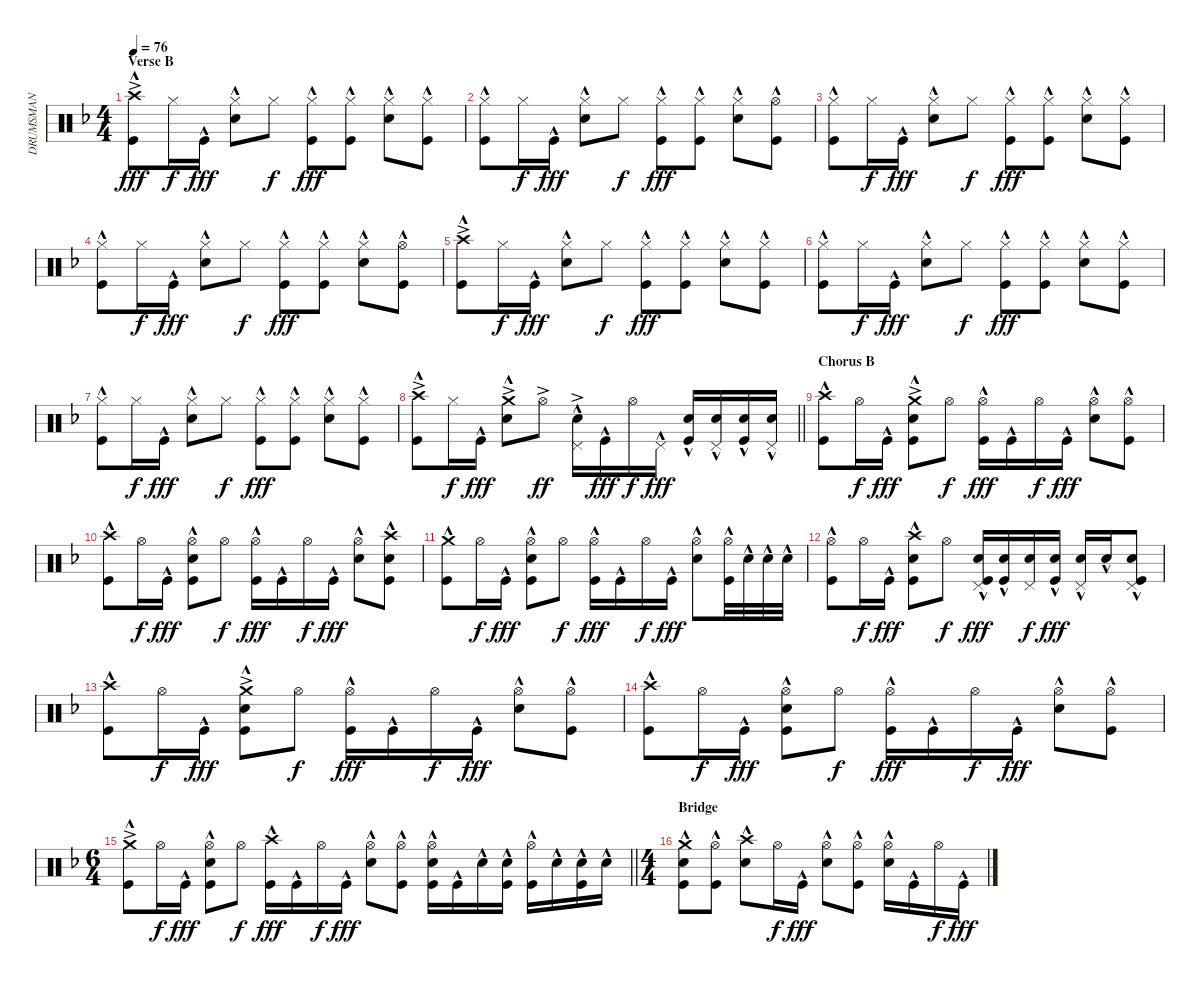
\track ("DRUMSMAN" "DRUMSMAN") {instrument percussion}
\staff {score}
\articulation defaults
\ts (4 4)
\section ("" "Verse B")
\tempo 76
\clef neutral
\ks f
("Crash high (hit)"{ac} "Kick (hit)"{hac}).8{dy fff} "Hi-Hat (closed)".16{dy f} "Kick (hit)"{hac}.16{dy fff} ("Hi-Hat (closed)" "Snare (hit) 2"{hac}).8 "Hi-Hat (closed)".8{dy f} ("Hi-Hat (closed)" "Kick (hit)"{hac}).8{dy fff} ("Hi-Hat (closed)" "Kick (hit)"{hac}).8 ("Hi-Hat (closed)" "Snare (hit) 2"{hac}).8 ("Hi-Hat (closed)" "Kick (hit)"{hac}).8 |
("Hi-Hat (closed)" "Kick (hit)"{hac}).8 "Hi-Hat (closed)".16{dy f} "Kick (hit)"{hac}.16{dy fff} ("Hi-Hat (closed)" "Snare (hit) 2"{hac}).8 "Hi-Hat (closed)".8{dy f} ("Hi-Hat (closed)" "Kick (hit)"{hac}).8{dy fff} ("Hi-Hat (closed)" "Kick (hit)"{hac}).8 ("Hi-Hat (closed)" "Snare (hit) 2"{hac}).8 ("Hi-Hat (open)" "Kick (hit)"{hac}).8 |
("Hi-Hat (closed)" "Kick (hit)"{hac}).8 "Hi-Hat (closed)".16{dy f} "Kick (hit)"{hac}.16{dy fff} ("Hi-Hat (closed)" "Snare (hit) 2"{hac}).8 "Hi-Hat (closed)".8{dy f} ("Hi-Hat (closed)" "Kick (hit)"{hac}).8{dy fff} ("Hi-Hat (closed)" "Kick (hit)"{hac}).8 ("Hi-Hat (closed)" "Snare (hit) 2"{hac}).8 ("Hi-Hat (closed)" "Kick (hit)"{hac}).8 |
("Hi-Hat (closed)" "Kick (hit)"{hac}).8 "Hi-Hat (closed)".16{dy f} "Kick (hit)"{hac}.16{dy fff} ("Hi-Hat (closed)" "Snare (hit) 2"{hac}).8 "Hi-Hat (closed)".8{dy f} ("Hi-Hat (closed)" "Kick (hit)"{hac}).8{dy fff} ("Hi-Hat (closed)" "Kick (hit)"{hac}).8 ("Hi-Hat (closed)" "Snare (hit) 2"{hac}).8 ("Hi-Hat (open)" "Kick (hit)"{hac}).8 |
("Crash high (hit)"{ac} "Kick (hit)"{hac}).8 "Hi-Hat (closed)".16{dy f} "Kick (hit)"{hac}.16{dy fff} ("Hi-Hat (closed)" "Snare (hit) 2"{hac}).8 "Hi-Hat (closed)".8{dy f} ("Hi-Hat (closed)" "Kick (hit)"{hac}).8{dy fff} ("Hi-Hat (closed)" "Kick (hit)"{hac}).8 ("Hi-Hat (closed)" "Snare (hit) 2"{hac}).8 ("Hi-Hat (closed)" "Kick (hit)"{hac}).8 |
("Hi-Hat (closed)" "Kick (hit)"{hac}).8 "Hi-Hat (closed)".16{dy f} "Kick (hit)"{hac}.16{dy fff} ("Hi-Hat (closed)" "Snare (hit) 2"{hac}).8 "Hi-Hat (closed)".8{dy f} ("Hi-Hat (closed)" "Kick (hit)"{hac}).8{dy fff} ("Hi-Hat (closed)" "Kick (hit)"{hac}).8 ("Hi-Hat (closed)" "Snare (hit) 2"{hac}).8 ("Hi-Hat (closed)" "Kick (hit)"{hac}).8 |
("Hi-Hat (closed)" "Kick (hit)"{hac}).8 "Hi-Hat (closed)".16{dy f} "Kick (hit)"{hac}.16{dy fff} ("Hi-Hat (closed)" "Snare (hit) 2"{hac}).8 "Hi-Hat (closed)".8{dy f} ("Hi-Hat (closed)" "Kick (hit)"{hac}).8{dy fff} ("Hi-Hat (closed)" "Kick (hit)"{hac}).8 ("Hi-Hat (closed)" "Snare (hit) 2"{hac}).8 ("Hi-Hat (closed)" "Kick (hit)"{hac}).8 |
\barLineRight lightlight
("Crash high (hit)"{ac} "Kick (hit)"{hac}).8 "Hi-Hat (closed)".16{dy f} "Kick (hit)"{hac}.16{dy fff} ("Crash medium (hit)"{ac} "Snare (hit) 2"{hac}).8 "Hi-Hat (open)"{ac}.8{dy ff} ("Snare (hit) 2"{hac} "Pedal Hi-Hat (hit)"{ac}).16 "Kick (hit)"{hac}.16{dy fff} "Hi-Hat (open)".16{dy f} "Pedal Hi-Hat (hit)"{hac}.16{dy fff} ("Snare (hit) 2"{hac} "Kick (hit)"{hac}).16 ("Snare (hit) 2"{hac} "Pedal Hi-Hat (hit)"{hac}).16 ("Snare (hit) 2"{hac} "Kick (hit)"{hac}).16 ("Snare (hit) 2"{hac} "Pedal Hi-Hat (hit)"{hac}).16 |
\section ("" "Chorus B")
("Crash high (hit)"{hac} "Kick (hit)"{hac}).8 "Hi-Hat (open)".16{dy f} "Kick (hit)"{hac}.16{dy fff} ("Crash medium (hit)"{ac} "Snare (hit) 2"{hac} "Kick (hit)"{hac}).8 "Hi-Hat (open)".8{dy f} ("Hi-Hat (open)" "Kick (hit)"{hac}).16{dy fff} "Kick (hit)"{hac}.16 "Hi-Hat (open)".16{dy f} "Kick (hit)"{hac}.16{dy fff} ("Hi-Hat (open)" "Snare (hit) 2"{hac}).8 ("Hi-Hat (open)" "Kick (hit)"{hac}).8 |
("Crash high (hit)"{hac} "Kick (hit)"{hac}).8 "Hi-Hat (open)".16{dy f} "Kick (hit)"{hac}.16{dy fff} ("Hi-Hat (open)" "Snare (hit) 2"{hac} "Kick (hit)"{hac}).8 "Hi-Hat (open)".8{dy f} ("Hi-Hat (open)" "Kick (hit)"{hac}).16{dy fff} "Kick (hit)"{hac}.16 "Hi-Hat (open)".16{dy f} "Kick (hit)"{hac}.16{dy fff} ("Hi-Hat (open)" "Snare (hit) 2"{hac}).8 ("Crash high (hit)"{hac} "Snare (hit) 2"{hac} "Kick (hit)"{hac}).8 |
("Crash medium (hit)"{hac} "Kick (hit)"{hac}).8 "Hi-Hat (open)".16{dy f} "Kick (hit)"{hac}.16{dy fff} ("Hi-Hat (open)" "Snare (hit) 2"{hac} "Kick (hit)"{hac}).8 "Hi-Hat (open)".8{dy f} ("Hi-Hat (open)" "Kick (hit)"{hac}).16{dy fff} "Kick (hit)"{hac}.16 "Hi-Hat (open)".16{dy f} "Kick (hit)"{hac}.16{dy fff} ("Hi-Hat (open)" "Snare (hit) 2"{hac}).8 ("Hi-Hat (open)" "Kick (hit)"{hac}).32 "Snare (hit) 2"{hac}.32 "Snare (hit) 2"{hac}.32 "Snare (hit) 2"{hac}.32 |
("Hi-Hat (open)" "Kick (hit)"{hac}).8 "Hi-Hat (open)".16{dy f} "Kick (hit)"{hac}.16{dy fff} ("Crash high (hit)"{hac} "Snare (hit) 2"{hac} "Kick (hit)"{hac}).8 "Hi-Hat (open)".8{dy f} ("Snare (hit) 2" "Pedal Hi-Hat (hit)" "Kick (hit)"{hac}).16{dy fff} ("Snare (hit) 2" "Kick (hit)"{hac}).16 ("Snare (hit) 2" "Pedal Hi-Hat (hit)").16{dy f} ("Snare (hit) 2" "Kick (hit)"{hac}).16{dy fff} ("Snare (hit) 2"{hac} "Pedal Hi-Hat (hit)").16 "Snare (hit) 2"{hac}.16 ("Snare (hit) 2" "Pedal Hi-Hat (hit)" "Kick (hit)"{hac}).8 |
("Crash high (hit)"{hac} "Kick (hit)"{hac}).8 "Hi-Hat (open)".16{dy f} "Kick (hit)"{hac}.16{dy fff} ("Crash medium (hit)"{ac} "Snare (hit) 2"{hac} "Kick (hit)"{hac}).8 "Hi-Hat (open)".8{dy f} ("Hi-Hat (open)" "Kick (hit)"{hac}).16{dy fff} "Kick (hit)"{hac}.16 "Hi-Hat (open)".16{dy f} "Kick (hit)"{hac}.16{dy fff} ("Hi-Hat (open)" "Snare (hit) 2"{hac}).8 ("Hi-Hat (open)" "Kick (hit)"{hac}).8 |
("Crash high (hit)"{hac} "Kick (hit)"{hac}).8 "Hi-Hat (open)".16{dy f} "Kick (hit)"{hac}.16{dy fff} ("Hi-Hat (open)" "Snare (hit) 2"{hac} "Kick (hit)"{hac}).8 "Hi-Hat (open)".8{dy f} ("Hi-Hat (open)" "Kick (hit)"{hac}).16{dy fff} "Kick (hit)"{hac}.16 "Hi-Hat (open)".16{dy f} "Kick (hit)"{hac}.16{dy fff} ("Hi-Hat (open)" "Snare (hit) 2"{hac}).8 ("Hi-Hat (open)" "Kick (hit)"{hac}).8 |
\ts (6 4)
\barLineRight lightlight
("Crash medium (hit)"{ac} "Kick (hit)"{hac}).8 "Hi-Hat (open)".16{dy f} "Kick (hit)"{hac}.16{dy fff beam split} ("Hi-Hat (open)" "Snare (hit) 2"{hac} "Kick (hit)"{hac}).8 "Hi-Hat (open)".8{dy f beam split} ("Crash high (hit)"{hac} "Kick (hit)"{hac}).16{dy fff} "Kick (hit)"{hac}.16 "Hi-Hat (open)".16{dy f} "Kick (hit)"{hac}.16{dy fff beam split} ("Hi-Hat (open)" "Snare (hit) 2"{hac}).8 ("Hi-Hat (open)" "Kick (hit)"{hac}).8{beam split} ("Hi-Hat (open)" "Snare (hit) 2"{hac} "Kick (hit)"{hac}).16 "Kick (hit)"{hac}.16 "Snare (hit) 2"{hac}.16 ("Snare (hit) 2"{hac} "Kick (hit)"{hac}).16{beam split} ("Hi-Hat (open)" "Kick (hit)"{hac}).16 "Snare (hit) 2"{hac}.16 ("Snare (hit) 2"{hac} "Kick (hit)"{hac}).16 "Snare (hit) 2"{hac}.16 |
\ts (4 4)
\section ("" "Bridge")
("Crash medium (hit)"{hac} "Snare (hit) 2"{hac} "Kick (hit)"{hac}).8 ("Hi-Hat (open)" "Kick (hit)"{hac}).8 ("Crash high (hit)"{hac} "Snare (hit) 2"{hac}).8 "Hi-Hat (open)".16{dy f} "Kick (hit)"{hac}.16{dy fff} ("Hi-Hat (open)" "Snare (hit) 2"{hac}).8 ("Hi-Hat (open)" "Kick (hit)"{hac}).8 ("Hi-Hat (open)" "Snare (hit) 2"{hac}).16 "Kick (hit)"{hac}.16 "Hi-Hat (open)".16{dy f} "Kick (hit)"{hac}.16{dy fff}
